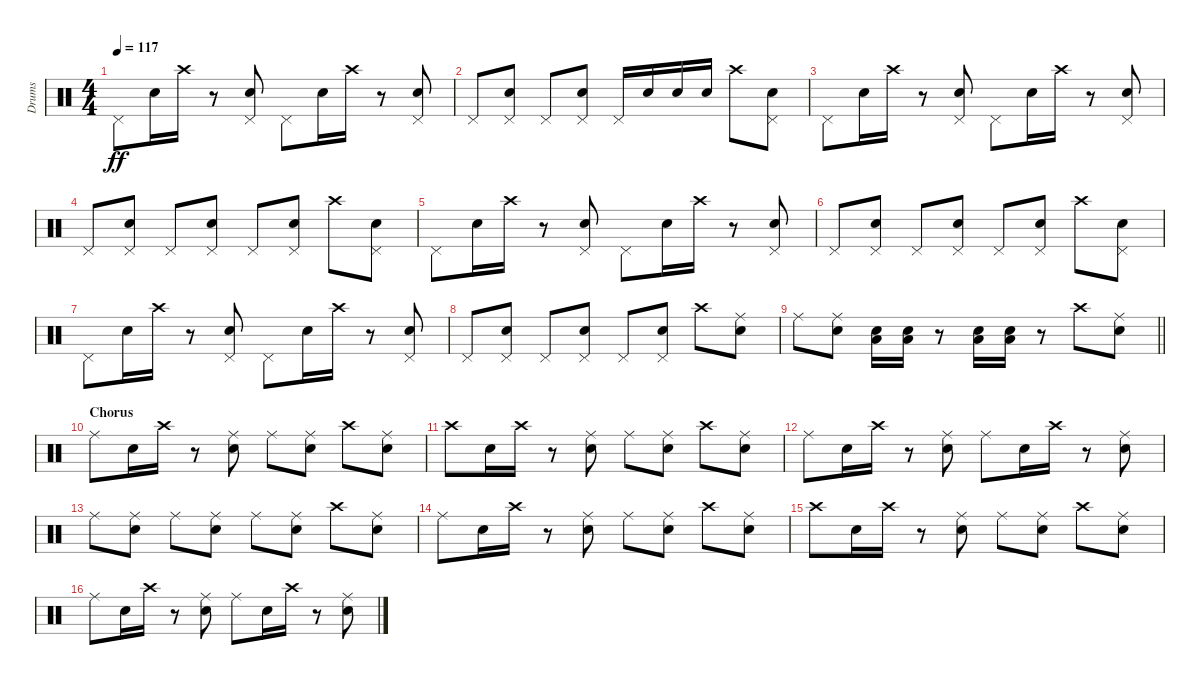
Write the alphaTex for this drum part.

\track ("Drums" "Drums") {instrument percussion}
\staff {score}
\articulation defaults
\ts (4 4)
\tempo 117
\clef neutral
\ks c "Pedal Hi-Hat (hit)".8{dy ff} "Snare (hit) 2".16 "Crash high (hit)".16
r.8 ("Snare (hit) 2" "Pedal Hi-Hat (hit)").8 "Pedal Hi-Hat (hit)".8 "Snare (hit) 2".16 "Crash high (hit)".16 r.8 ("Snare (hit) 2" "Pedal Hi-Hat (hit)").8 |
"Pedal Hi-Hat (hit)".8 ("Snare (hit) 2" "Pedal Hi-Hat (hit)").8 "Pedal Hi-Hat (hit)".8 ("Snare (hit) 2" "Pedal Hi-Hat (hit)").8 "Pedal Hi-Hat (hit)".16 "Snare (hit) 2".16 "Snare (hit) 2".16 "Snare (hit) 2".16 "Crash high (hit)".8 ("Snare (hit) 2" "Pedal Hi-Hat (hit)").8 |
"Pedal Hi-Hat (hit)".8 "Snare (hit) 2".16 "Crash high (hit)".16 r.8 ("Snare (hit) 2" "Pedal Hi-Hat (hit)").8 "Pedal Hi-Hat (hit)".8 "Snare (hit) 2".16 "Crash high (hit)".16 r.8 ("Snare (hit) 2" "Pedal Hi-Hat (hit)").8 |
"Pedal Hi-Hat (hit)".8 ("Snare (hit) 2" "Pedal Hi-Hat (hit)").8 "Pedal Hi-Hat (hit)".8 ("Snare (hit) 2" "Pedal Hi-Hat (hit)").8 "Pedal Hi-Hat (hit)".8 ("Snare (hit) 2" "Pedal Hi-Hat (hit)").8 "Crash high (hit)".8 ("Snare (hit) 2" "Pedal Hi-Hat (hit)").8 |
"Pedal Hi-Hat (hit)".8 "Snare (hit) 2".16 "Crash high (hit)".16 r.8 ("Snare (hit) 2" "Pedal Hi-Hat (hit)").8 "Pedal Hi-Hat (hit)".8 "Snare (hit) 2".16 "Crash high (hit)".16 r.8 ("Snare (hit) 2" "Pedal Hi-Hat (hit)").8 |
"Pedal Hi-Hat (hit)".8 ("Snare (hit) 2" "Pedal Hi-Hat (hit)").8 "Pedal Hi-Hat (hit)".8 ("Snare (hit) 2" "Pedal Hi-Hat (hit)").8 "Pedal Hi-Hat (hit)".8 ("Snare (hit) 2" "Pedal Hi-Hat (hit)").8 "Crash high (hit)".8 ("Snare (hit) 2" "Pedal Hi-Hat (hit)").8 |
"Pedal Hi-Hat (hit)".8 "Snare (hit) 2".16 "Crash high (hit)".16 r.8 ("Snare (hit) 2" "Pedal Hi-Hat (hit)").8 "Pedal Hi-Hat (hit)".8 "Snare (hit) 2".16 "Crash high (hit)".16 r.8 ("Snare (hit) 2" "Pedal Hi-Hat (hit)").8 |
"Pedal Hi-Hat (hit)".8 ("Snare (hit) 2" "Pedal Hi-Hat (hit)").8 "Pedal Hi-Hat (hit)".8 ("Snare (hit) 2" "Pedal Hi-Hat (hit)").8 "Pedal Hi-Hat (hit)".8 ("Snare (hit) 2" "Pedal Hi-Hat (hit)").8 "Crash high (hit)".8 ("Snare (hit) 2" "Ride (middle)").8 |
\barLineRight lightlight "Ride (middle)".8
("Snare (hit) 2" "Ride (middle)").8 ("Snare (hit) 2" "Low Floor Tom (hit)").16 ("Snare (hit) 2" "Low Floor Tom (hit)").16 r.8 ("Snare (hit) 2" "Low Floor Tom (hit)").16 ("Snare (hit) 2" "Low Floor Tom (hit)").16 r.8 "Crash high (hit)".8 ("Snare (hit) 2" "Ride (middle)").8 |
\section ("" "Chorus")
"Ride (middle)".8 "Snare (hit) 2".16 "Crash high (hit)".16 r.8 ("Snare (hit) 2" "Ride (middle)").8 "Ride (middle)".8 ("Snare (hit) 2" "Ride (middle)").8 "Crash high (hit)".8 ("Snare (hit) 2" "Ride (middle)").8 |
"Crash high (hit)".8 "Snare (hit) 2".16 "Crash high (hit)".16 r.8 ("Snare (hit) 2" "Ride (middle)").8 "Ride (middle)".8 ("Snare (hit) 2" "Ride (middle)").8 "Crash high (hit)".8 ("Snare (hit) 2" "Ride (middle)").8 |
"Ride (middle)".8 "Snare (hit) 2".16 "Crash high (hit)".16 r.8 ("Snare (hit) 2" "Ride (middle)").8 "Ride (middle)".8 "Snare (hit) 2".16 "Crash high (hit)".16 r.8 ("Snare (hit) 2" "Ride (middle)").8 |
"Ride (middle)".8 ("Snare (hit) 2" "Ride (middle)").8 "Ride (middle)".8 ("Snare (hit) 2" "Ride (middle)").8 "Ride (middle)".8 ("Snare (hit) 2" "Ride (middle)").8 "Crash high (hit)".8 ("Snare (hit) 2" "Ride (middle)").8 |
"Ride (middle)".8 "Snare (hit) 2".16 "Crash high (hit)".16 r.8 ("Snare (hit) 2" "Ride (middle)").8 "Ride (middle)".8 ("Snare (hit) 2" "Ride (middle)").8 "Crash high (hit)".8 ("Snare (hit) 2" "Ride (middle)").8 |
"Crash high (hit)".8 "Snare (hit) 2".16 "Crash high (hit)".16 r.8 ("Snare (hit) 2" "Ride (middle)").8 "Ride (middle)".8 ("Snare (hit) 2" "Ride (middle)").8 "Crash high (hit)".8 ("Snare (hit) 2" "Ride (middle)").8 |
"Ride (middle)".8 "Snare (hit) 2".16 "Crash high (hit)".16 r.8 ("Snare (hit) 2" "Ride (middle)").8 "Ride (middle)".8 "Snare (hit) 2".16 "Crash high (hit)".16 r.8 ("Snare (hit) 2" "Ride (middle)").8
